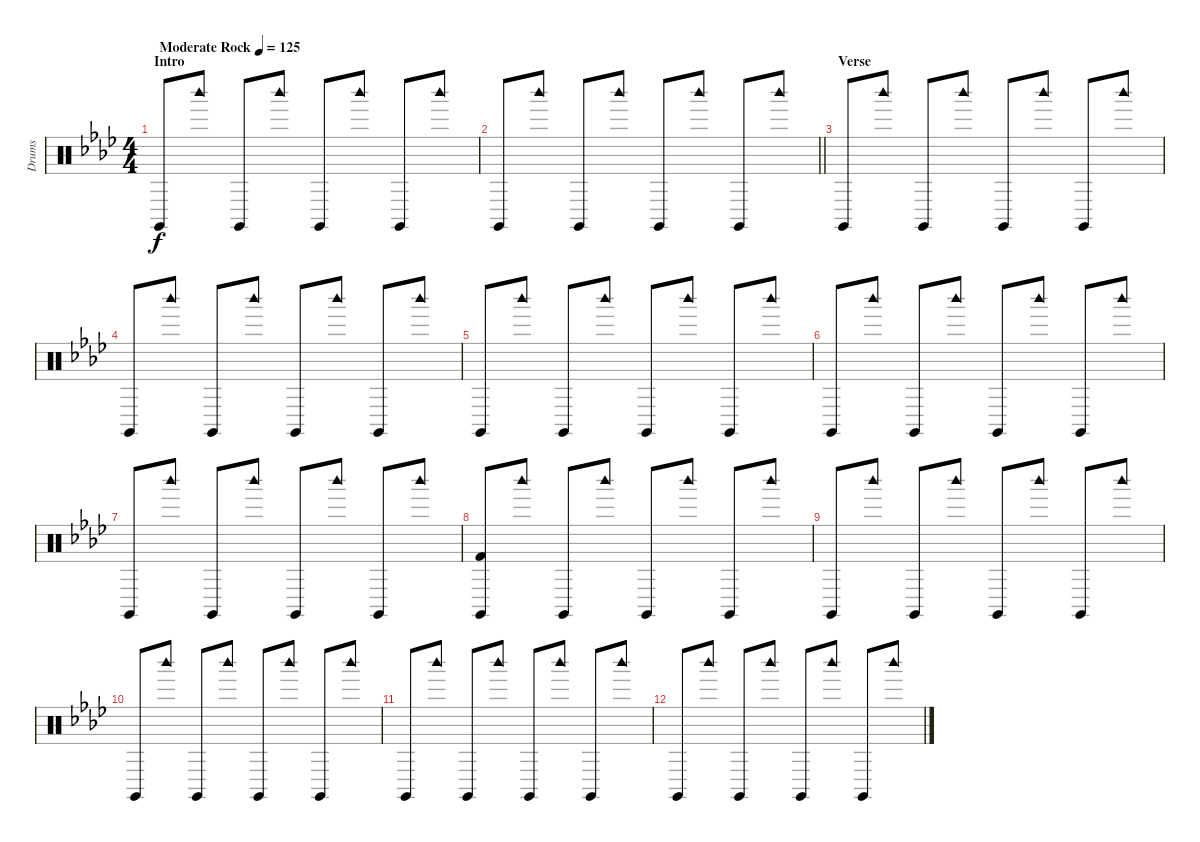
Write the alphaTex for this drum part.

\track ("Drums" "Drums") {instrument percussion}
\staff {score}
\articulation defaults
\ts (4 4)
\section ("" "Intro")
\tempo (125 "Moderate Rock")
\clef neutral
\ks ab "Claves (hit)".8{dy f} "Woodblock high (hit)".8 "Claves (hit)".8 "Woodblock high (hit)".8 "Claves (hit)".8 "Woodblock high (hit)".8 "Claves (hit)".8 "Woodblock high (hit)".8
|
\barLineRight lightlight "Claves (hit)".8 "Woodblock high (hit)".8 "Claves (hit)".8 "Woodblock high (hit)".8 "Claves (hit)".8 "Woodblock high (hit)".8 "Claves (hit)".8 "Woodblock high (hit)".8
|
\section ("" "Verse")
"Claves (hit)".8 "Woodblock high (hit)".8 "Claves (hit)".8 "Woodblock high (hit)".8 "Claves (hit)".8 "Woodblock high (hit)".8 "Claves (hit)".8 "Woodblock high (hit)".8 |
"Claves (hit)".8 "Woodblock high (hit)".8 "Claves (hit)".8 "Woodblock high (hit)".8 "Claves (hit)".8 "Woodblock high (hit)".8 "Claves (hit)".8 "Woodblock high (hit)".8 |
"Claves (hit)".8 "Woodblock high (hit)".8 "Claves (hit)".8 "Woodblock high (hit)".8 "Claves (hit)".8 "Woodblock high (hit)".8 "Claves (hit)".8 "Woodblock high (hit)".8 |
"Claves (hit)".8 "Woodblock high (hit)".8 "Claves (hit)".8 "Woodblock high (hit)".8 "Claves (hit)".8 "Woodblock high (hit)".8 "Claves (hit)".8 "Woodblock high (hit)".8 |
"Claves (hit)".8 "Woodblock high (hit)".8 "Claves (hit)".8 "Woodblock high (hit)".8 "Claves (hit)".8 "Woodblock high (hit)".8 "Claves (hit)".8 "Woodblock high (hit)".8 |
("Claves (hit)" "Kick (hit) 2").8 "Woodblock high (hit)".8 "Claves (hit)".8 "Woodblock high (hit)".8 "Claves (hit)".8 "Woodblock high (hit)".8 "Claves (hit)".8 "Woodblock high (hit)".8 |
"Claves (hit)".8 "Woodblock high (hit)".8 "Claves (hit)".8 "Woodblock high (hit)".8 "Claves (hit)".8 "Woodblock high (hit)".8 "Claves (hit)".8 "Woodblock high (hit)".8 |
"Claves (hit)".8 "Woodblock high (hit)".8 "Claves (hit)".8 "Woodblock high (hit)".8 "Claves (hit)".8 "Woodblock high (hit)".8 "Claves (hit)".8 "Woodblock high (hit)".8 |
"Claves (hit)".8 "Woodblock high (hit)".8 "Claves (hit)".8 "Woodblock high (hit)".8 "Claves (hit)".8 "Woodblock high (hit)".8 "Claves (hit)".8 "Woodblock high (hit)".8 |
"Claves (hit)".8 "Woodblock high (hit)".8 "Claves (hit)".8 "Woodblock high (hit)".8 "Claves (hit)".8 "Woodblock high (hit)".8 "Claves (hit)".8 "Woodblock high (hit)".8
